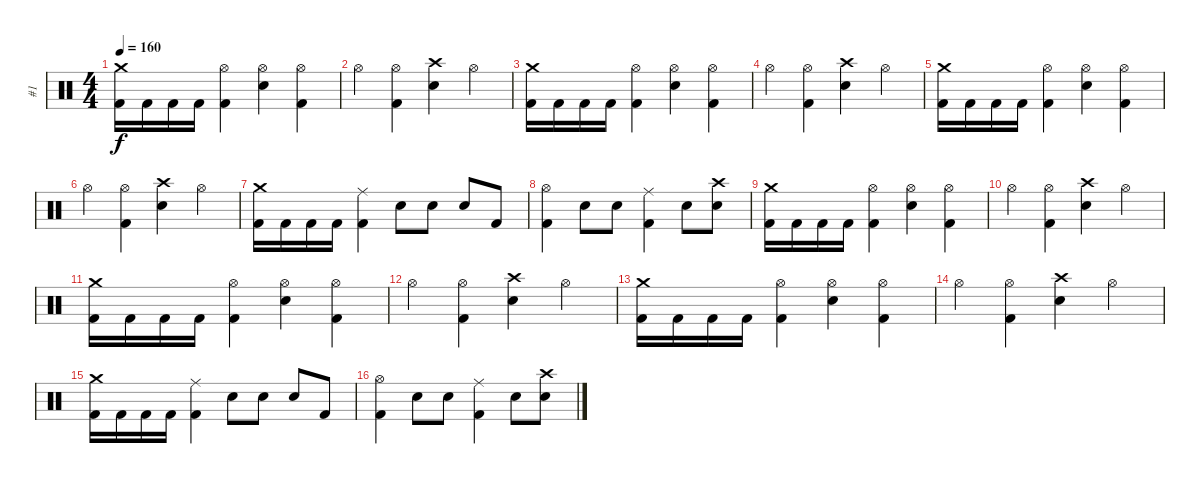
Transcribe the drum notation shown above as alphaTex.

\track ("#1" "#1") {instrument percussion}
\staff {score}
\articulation defaults
\ts (4 4)
\tempo 160
\clef neutral
\ks c
("Kick (hit) 2" "Crash medium (hit)").16{dy f} "Kick (hit) 2".16 "Kick (hit) 2".16 "Kick (hit) 2".16 ("Kick (hit) 2" "Hi-Hat (open)").4 ("Electric Snare (hit)" "Hi-Hat (open)").4 ("Kick (hit) 2" "Hi-Hat (open)").4 |
"Hi-Hat (open)".4 ("Kick (hit) 2" "Hi-Hat (open)").4 ("Electric Snare (hit)" "Crash high (hit)").4 "Hi-Hat (open)".4 |
("Kick (hit) 2" "Crash medium (hit)").16 "Kick (hit) 2".16 "Kick (hit) 2".16 "Kick (hit) 2".16 ("Kick (hit) 2" "Hi-Hat (open)").4 ("Electric Snare (hit)" "Hi-Hat (open)").4 ("Kick (hit) 2" "Hi-Hat (open)").4 |
"Hi-Hat (open)".4 ("Kick (hit) 2" "Hi-Hat (open)").4 ("Electric Snare (hit)" "Crash high (hit)").4 "Hi-Hat (open)".4 |
("Kick (hit) 2" "Crash medium (hit)").16 "Kick (hit) 2".16 "Kick (hit) 2".16 "Kick (hit) 2".16 ("Kick (hit) 2" "Hi-Hat (open)").4 ("Electric Snare (hit)" "Hi-Hat (open)").4 ("Kick (hit) 2" "Hi-Hat (open)").4 |
"Hi-Hat (open)".4 ("Kick (hit) 2" "Hi-Hat (open)").4 ("Electric Snare (hit)" "Crash high (hit)").4 "Hi-Hat (open)".4 |
("Kick (hit) 2" "Crash medium (hit)").16 "Kick (hit) 2".16 "Kick (hit) 2".16 "Kick (hit) 2".16 ("Kick (hit) 2" "Ride (middle)").4 "Electric Snare (hit)".8 "Electric Snare (hit)".8 "Electric Snare (hit)".8 "Kick (hit) 2".8 |
("Kick (hit) 2" "Hi-Hat (open)").4 "Electric Snare (hit)".8 "Electric Snare (hit)".8 ("Kick (hit) 2" "Ride (middle)").4 "Electric Snare (hit)".8 ("Electric Snare (hit)" "Crash high (hit)").8 |
("Kick (hit) 2" "Crash medium (hit)").16 "Kick (hit) 2".16 "Kick (hit) 2".16 "Kick (hit) 2".16 ("Kick (hit) 2" "Hi-Hat (open)").4 ("Electric Snare (hit)" "Hi-Hat (open)").4 ("Kick (hit) 2" "Hi-Hat (open)").4 |
"Hi-Hat (open)".4 ("Kick (hit) 2" "Hi-Hat (open)").4 ("Electric Snare (hit)" "Crash high (hit)").4 "Hi-Hat (open)".4 |
("Kick (hit) 2" "Crash medium (hit)").16 "Kick (hit) 2".16 "Kick (hit) 2".16 "Kick (hit) 2".16 ("Kick (hit) 2" "Hi-Hat (open)").4 ("Electric Snare (hit)" "Hi-Hat (open)").4 ("Kick (hit) 2" "Hi-Hat (open)").4 |
"Hi-Hat (open)".4 ("Kick (hit) 2" "Hi-Hat (open)").4 ("Electric Snare (hit)" "Crash high (hit)").4 "Hi-Hat (open)".4 |
("Kick (hit) 2" "Crash medium (hit)").16 "Kick (hit) 2".16 "Kick (hit) 2".16 "Kick (hit) 2".16 ("Kick (hit) 2" "Hi-Hat (open)").4 ("Electric Snare (hit)" "Hi-Hat (open)").4 ("Kick (hit) 2" "Hi-Hat (open)").4 |
"Hi-Hat (open)".4 ("Kick (hit) 2" "Hi-Hat (open)").4 ("Electric Snare (hit)" "Crash high (hit)").4 "Hi-Hat (open)".4 |
("Kick (hit) 2" "Crash medium (hit)").16 "Kick (hit) 2".16 "Kick (hit) 2".16 "Kick (hit) 2".16 ("Kick (hit) 2" "Ride (middle)").4 "Electric Snare (hit)".8 "Electric Snare (hit)".8 "Electric Snare (hit)".8 "Kick (hit) 2".8 |
("Kick (hit) 2" "Hi-Hat (open)").4 "Electric Snare (hit)".8 "Electric Snare (hit)".8 ("Kick (hit) 2" "Ride (middle)").4 "Electric Snare (hit)".8 ("Electric Snare (hit)" "Crash high (hit)").8
